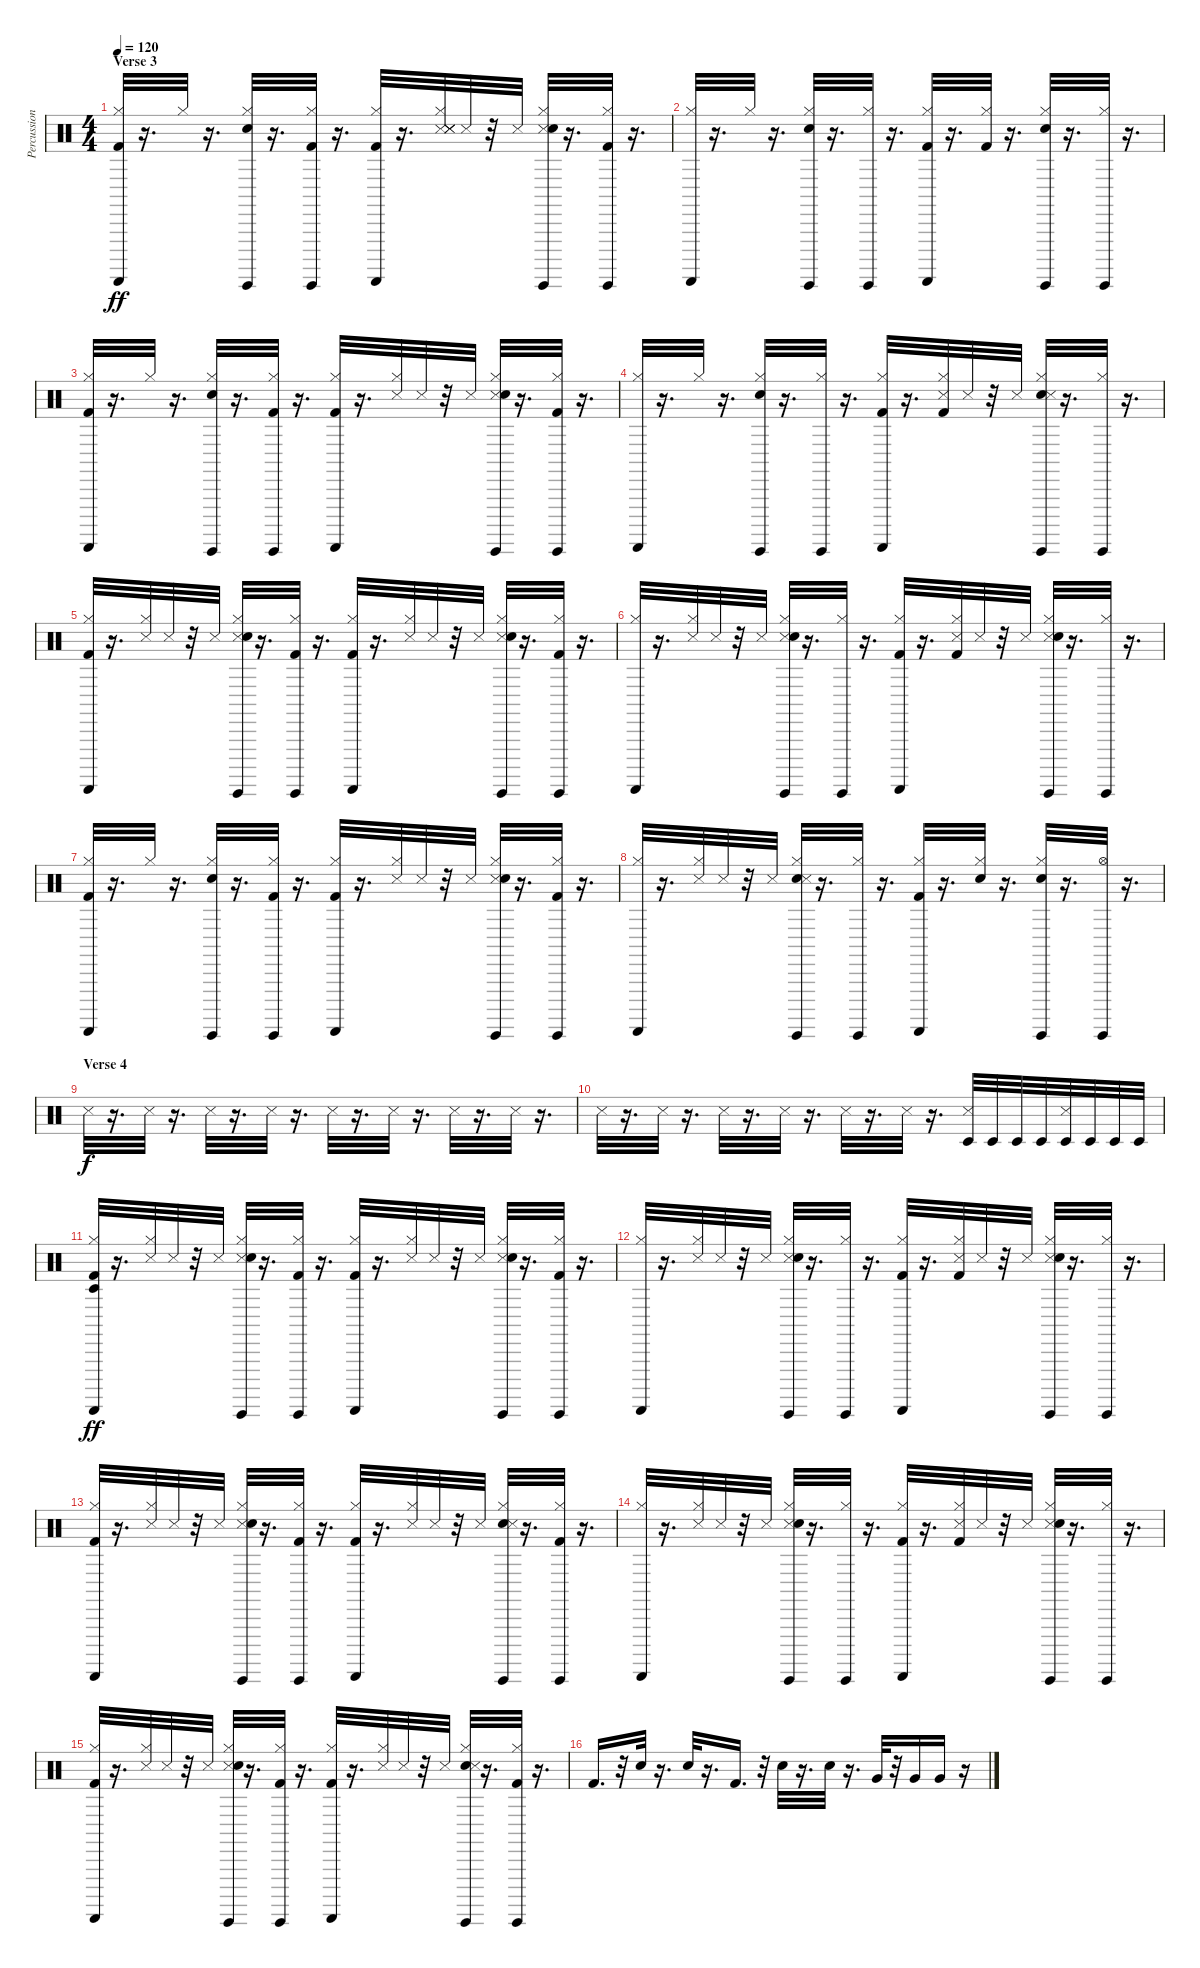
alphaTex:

\track ("Percussion" "Percussion") {instrument percussion}
\staff {score}
\articulation defaults
\ts (4 4)
\section ("" "Verse 3")
\tempo 120
\clef neutral
\ks c
("Guiro (scrap-return)" "Hi-Hat (closed)" "Kick (hit) 2").32{dy ff} r.16{d} "Hi-Hat (closed)".32 r.16{d} ("Guiro (hit)" "Hi-Hat (closed)" "Snare (hit) 2").32 r.16{d} ("Guiro (hit)" "Hi-Hat (closed)" "Kick (hit) 2").32 r.16{d} ("Guiro (scrap-return)" "Hi-Hat (closed)" "Kick (hit) 2").32 r.16{d} ("Hi-Hat (closed)" "Snare (side stick) 3" "Snare (side stick) 3" "Snare (side stick) 3" "Snare (side stick) 3").32 "Snare (side stick) 3".32 r.32 "Snare (side stick) 3".32 ("Snare (side stick) 3" "Guiro (hit)" "Hi-Hat (closed)" "Snare (hit) 2").32 r.16{d} ("Guiro (hit)" "Hi-Hat (closed)" "Kick (hit) 2").32 r.16{d} |
("Guiro (scrap-return)" "Hi-Hat (closed)").32 r.16{d} "Hi-Hat (closed)".32 r.16{d} ("Snare (hit) 2" "Guiro (hit)" "Hi-Hat (closed)").32 r.16{d} ("Guiro (hit)" "Hi-Hat (closed)").32 r.16{d} ("Guiro (scrap-return)" "Hi-Hat (closed)" "Kick (hit) 2").32 r.16{d} ("Hi-Hat (closed)" "Kick (hit) 2").32 r.16{d} ("Guiro (hit)" "Hi-Hat (closed)" "Snare (hit) 2").32 r.16{d} ("Guiro (hit)" "Hi-Hat (closed)").32 r.16{d} |
("Guiro (scrap-return)" "Hi-Hat (closed)" "Kick (hit) 2").32 r.16{d} "Hi-Hat (closed)".32 r.16{d} ("Guiro (hit)" "Hi-Hat (closed)" "Snare (hit) 2").32 r.16{d} ("Guiro (hit)" "Hi-Hat (closed)" "Kick (hit) 2").32 r.16{d} ("Guiro (scrap-return)" "Hi-Hat (closed)" "Kick (hit) 2").32 r.16{d} ("Hi-Hat (closed)" "Snare (side stick) 3").32 "Snare (side stick) 3".32 r.32 "Snare (side stick) 3".32 ("Guiro (hit)" "Snare (side stick) 3" "Hi-Hat (closed)" "Snare (hit) 2").32 r.16{d} ("Guiro (hit)" "Hi-Hat (closed)" "Kick (hit) 2").32 r.16{d} |
("Guiro (scrap-return)" "Hi-Hat (closed)").32 r.16{d} "Hi-Hat (closed)".32 r.16{d} ("Guiro (hit)" "Hi-Hat (closed)" "Snare (hit) 2").32 r.16{d} ("Guiro (hit)" "Hi-Hat (closed)").32 r.16{d} ("Guiro (scrap-return)" "Hi-Hat (closed)" "Kick (hit) 2").32 r.16{d} ("Hi-Hat (closed)" "Kick (hit) 2" "Snare (side stick) 3").32 "Snare (side stick) 3".32 r.32 "Snare (side stick) 3".32 ("Snare (hit) 2" "Guiro (hit)" "Hi-Hat (closed)" "Snare (side stick) 3").32 r.16{d} ("Guiro (hit)" "Hi-Hat (closed)").32 r.16{d} |
("Guiro (scrap-return)" "Hi-Hat (closed)" "Kick (hit) 2").32 r.16{d} ("Hi-Hat (closed)" "Snare (side stick) 3").32 "Snare (side stick) 3".32 r.32 "Snare (side stick) 3".32 ("Guiro (hit)" "Snare (side stick) 3" "Hi-Hat (closed)" "Snare (hit) 2").32 r.16{d} ("Guiro (hit)" "Hi-Hat (closed)" "Kick (hit) 2").32 r.16{d} ("Guiro (scrap-return)" "Hi-Hat (closed)" "Kick (hit) 2").32 r.16{d} ("Snare (side stick) 3" "Hi-Hat (closed)").32 "Snare (side stick) 3".32 r.32 "Snare (side stick) 3".32 ("Snare (side stick) 3" "Guiro (hit)" "Hi-Hat (closed)" "Snare (hit) 2").32 r.16{d} ("Guiro (hit)" "Hi-Hat (closed)" "Kick (hit) 2").32 r.16{d} |
("Guiro (scrap-return)" "Hi-Hat (closed)").32 r.16{d} ("Snare (side stick) 3" "Hi-Hat (closed)").32 "Snare (side stick) 3".32 r.32 "Snare (side stick) 3".32 ("Guiro (hit)" "Hi-Hat (closed)" "Snare (side stick) 3" "Snare (hit) 2").32 r.16{d} ("Guiro (hit)" "Hi-Hat (closed)").32 r.16{d} ("Kick (hit) 2" "Guiro (scrap-return)" "Hi-Hat (closed)").32 r.16{d} ("Snare (side stick) 3" "Hi-Hat (closed)" "Kick (hit) 2").32 "Snare (side stick) 3".32 r.32 "Snare (side stick) 3".32 ("Guiro (hit)" "Hi-Hat (closed)" "Snare (side stick) 3" "Snare (hit) 2").32 r.16{d} ("Guiro (hit)" "Hi-Hat (closed)").32 r.16{d} |
("Guiro (scrap-return)" "Hi-Hat (closed)" "Kick (hit) 2").32 r.16{d} "Hi-Hat (closed)".32 r.16{d} ("Guiro (hit)" "Hi-Hat (closed)" "Snare (hit) 2").32 r.16{d} ("Guiro (hit)" "Hi-Hat (closed)" "Kick (hit) 2").32 r.16{d} ("Guiro (scrap-return)" "Hi-Hat (closed)" "Kick (hit) 2").32 r.16{d} ("Hi-Hat (closed)" "Snare (side stick) 3").32 "Snare (side stick) 3".32 r.32 "Snare (side stick) 3".32 ("Guiro (hit)" "Hi-Hat (closed)" "Snare (side stick) 3" "Snare (hit) 2").32 r.16{d} ("Kick (hit) 2" "Guiro (hit)" "Hi-Hat (closed)").32 r.16{d} |
("Guiro (scrap-return)" "Hi-Hat (closed)").32 r.16{d} ("Hi-Hat (closed)" "Snare (side stick) 3").32 "Snare (side stick) 3".32 r.32 "Snare (side stick) 3".32 ("Guiro (hit)" "Hi-Hat (closed)" "Snare (hit) 2" "Snare (side stick) 3").32 r.16{d} ("Guiro (hit)" "Hi-Hat (closed)").32 r.16{d} ("Hi-Hat (closed)" "Kick (hit) 2" "Guiro (scrap-return)").32 r.16{d} ("Electric Snare (hit)" "Hi-Hat (closed)").32 r.16{d} ("Hi-Hat (closed)" "Electric Snare (hit)" "Guiro (hit)").32 r.16{d} ("Hi-Hat (open)" "Guiro (hit)").32 r.16{d} |
\section ("" "Verse 4")
"Snare (side stick) 3".32{dy f} r.16{d} "Snare (side stick) 3".32 r.16{d} "Snare (side stick) 3".32 r.16{d} "Snare (side stick) 3".32 r.16{d} "Snare (side stick) 3".32 r.16{d} "Snare (side stick) 3".32 r.16{d} "Snare (side stick) 3".32 r.16{d} "Snare (side stick) 3".32 r.16{d} |
"Snare (side stick) 3".32 r.16{d} "Snare (side stick) 3".32 r.16{d} "Snare (side stick) 3".32 r.16{d} "Snare (side stick) 3".32 r.16{d} "Snare (side stick) 3".32 r.16{d} "Snare (side stick) 3".32 r.16{d} ("Timbale low (hit)" "Snare (side stick) 3").32 "Timbale low (hit)".32 "Timbale low (hit)".32 "Timbale low (hit)".32 ("Timbale low (hit)" "Snare (side stick) 3").32 "Timbale low (hit)".32 "Timbale low (hit)".32 "Timbale low (hit)".32 |
("Timbale low (hit)" "Guiro (scrap-return)" "Hi-Hat (closed)" "Kick (hit) 2").32{dy ff} r.16{d} ("Hi-Hat (closed)" "Snare (side stick) 3").32 "Snare (side stick) 3".32 r.32 "Snare (side stick) 3".32 ("Guiro (hit)" "Snare (side stick) 3" "Hi-Hat (closed)" "Snare (hit) 2").32 r.16{d} ("Guiro (hit)" "Hi-Hat (closed)" "Kick (hit) 2").32 r.16{d} ("Guiro (scrap-return)" "Hi-Hat (closed)" "Kick (hit) 2").32 r.16{d} ("Snare (side stick) 3" "Hi-Hat (closed)").32 "Snare (side stick) 3".32 r.32 "Snare (side stick) 3".32 ("Snare (side stick) 3" "Guiro (hit)" "Hi-Hat (closed)" "Snare (hit) 2").32 r.16{d} ("Guiro (hit)" "Hi-Hat (closed)" "Kick (hit) 2").32 r.16{d} |
("Guiro (scrap-return)" "Hi-Hat (closed)").32 r.16{d} ("Snare (side stick) 3" "Hi-Hat (closed)").32 "Snare (side stick) 3".32 r.32 "Snare (side stick) 3".32 ("Guiro (hit)" "Hi-Hat (closed)" "Snare (side stick) 3" "Snare (hit) 2").32 r.16{d} ("Guiro (hit)" "Hi-Hat (closed)").32 r.16{d} ("Kick (hit) 2" "Guiro (scrap-return)" "Hi-Hat (closed)").32 r.16{d} ("Snare (side stick) 3" "Hi-Hat (closed)" "Kick (hit) 2").32 "Snare (side stick) 3".32 r.32 "Snare (side stick) 3".32 ("Guiro (hit)" "Hi-Hat (closed)" "Snare (side stick) 3" "Snare (hit) 2").32 r.16{d} ("Guiro (hit)" "Hi-Hat (closed)").32 r.16{d} |
("Guiro (scrap-return)" "Hi-Hat (closed)" "Kick (hit) 2").32 r.16{d} ("Hi-Hat (closed)" "Snare (side stick) 3").32 "Snare (side stick) 3".32 r.32 "Snare (side stick) 3".32 ("Guiro (hit)" "Hi-Hat (closed)" "Snare (side stick) 3" "Snare (hit) 2").32 r.16{d} ("Guiro (hit)" "Hi-Hat (closed)" "Kick (hit) 2").32 r.16{d} ("Guiro (scrap-return)" "Hi-Hat (closed)" "Kick (hit) 2").32 r.16{d} ("Snare (side stick) 3" "Hi-Hat (closed)").32 "Snare (side stick) 3".32 r.32 "Snare (side stick) 3".32 ("Snare (hit) 2" "Hi-Hat (closed)" "Guiro (hit)" "Snare (side stick) 3").32 r.16{d} ("Kick (hit) 2" "Guiro (hit)" "Hi-Hat (closed)").32 r.16{d} |
("Hi-Hat (closed)" "Guiro (scrap-return)").32 r.16{d} ("Hi-Hat (closed)" "Snare (side stick) 3").32 "Snare (side stick) 3".32 r.32 "Snare (side stick) 3".32 ("Hi-Hat (closed)" "Guiro (hit)" "Snare (side stick) 3" "Snare (hit) 2").32 r.16{d} ("Hi-Hat (closed)" "Guiro (hit)").32 r.16{d} ("Kick (hit) 2" "Guiro (scrap-return)" "Hi-Hat (closed)").32 r.16{d} ("Hi-Hat (closed)" "Snare (side stick) 3" "Kick (hit) 2").32 "Snare (side stick) 3".32 r.32 "Snare (side stick) 3".32 ("Hi-Hat (closed)" "Guiro (hit)" "Snare (side stick) 3" "Snare (hit) 2").32 r.16{d} ("Hi-Hat (closed)" "Guiro (hit)").32 r.16{d} |
("Guiro (scrap-return)" "Hi-Hat (closed)" "Kick (hit) 2").32 r.16{d} ("Hi-Hat (closed)" "Snare (side stick) 3").32 "Snare (side stick) 3".32 r.32 "Snare (side stick) 3".32 ("Guiro (hit)" "Hi-Hat (closed)" "Snare (side stick) 3" "Snare (hit) 2").32 r.16{d} ("Guiro (hit)" "Hi-Hat (closed)" "Kick (hit) 2").32 r.16{d} ("Guiro (scrap-return)" "Hi-Hat (closed)" "Kick (hit) 2").32 r.16{d} ("Snare (side stick) 3" "Hi-Hat (closed)").32 "Snare (side stick) 3".32 r.32 "Snare (side stick) 3".32 ("Snare (hit) 2" "Hi-Hat (closed)" "Guiro (hit)" "Snare (side stick) 3").32 r.16{d} ("Kick (hit) 2" "Guiro (hit)" "Hi-Hat (closed)").32 r.16{d} |
"Kick (hit) 2".16{d} r.32 "Electric Snare (hit)".32 r.16{d} "Electric Snare (hit)".32 r.16{d} "Kick (hit) 2".16{d} r.32 "Electric Snare (hit)".32 r.16{d} "Electric Snare (hit)".32 r.16{d} "Very Low Tom (hit)".32 r.32 "Very Low Tom (hit)".16 "Very Low Tom (hit)".16 r.16
